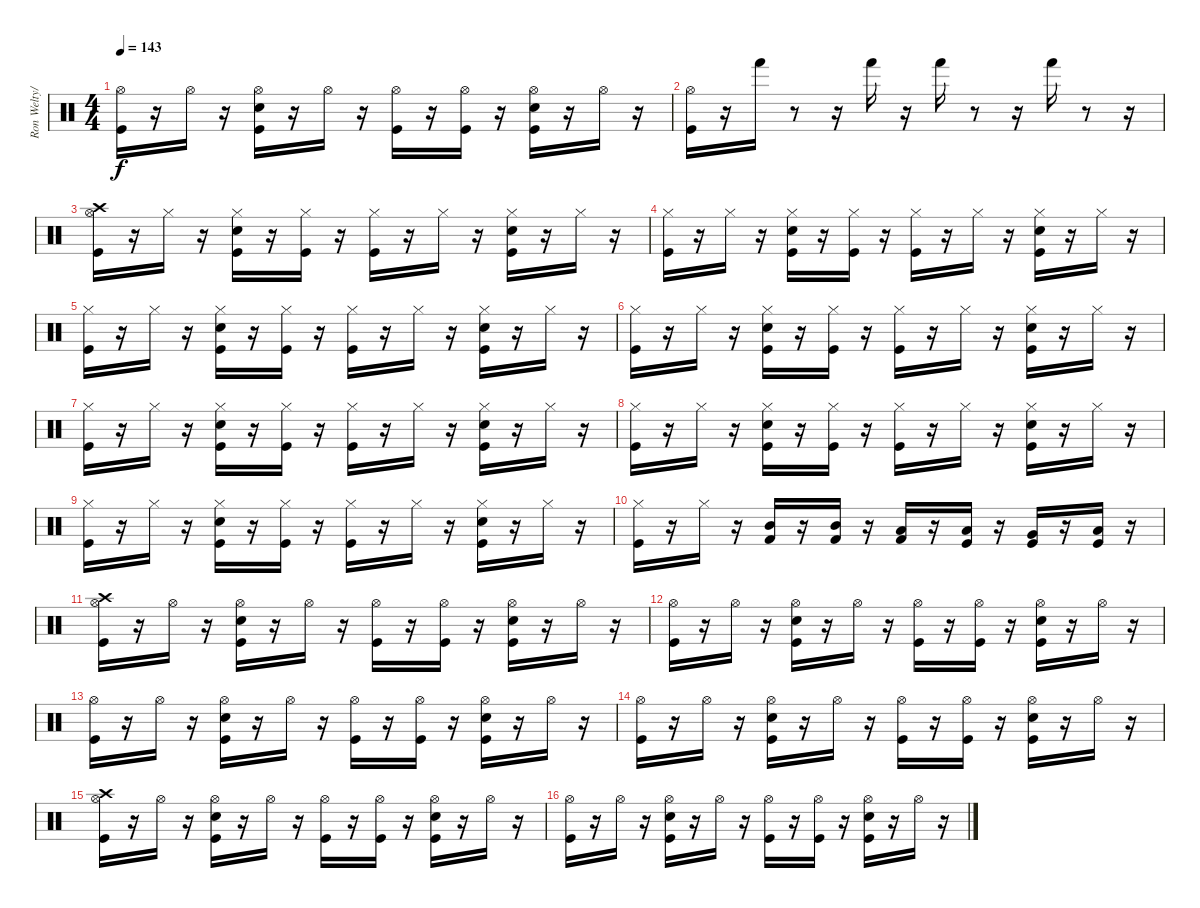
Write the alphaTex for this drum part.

\track ("Ron Welty/Atom Willard" "Ron Welty/") {instrument percussion}
\staff {score}
\articulation defaults
\ts (4 4)
\tempo 143
\clef neutral
\ks c
("Kick (hit)" "Hi-Hat (open)").16{dy f} r.16 "Hi-Hat (open)".16 r.16 ("Snare (hit) 2" "Kick (hit)" "Hi-Hat (open)").16 r.16 "Hi-Hat (open)".16 r.16 ("Kick (hit)" "Hi-Hat (open)").16 r.16 ("Kick (hit)" "Hi-Hat (open)").16 r.16 ("Kick (hit)" "Snare (hit) 2" "Hi-Hat (open)").16 r.16 "Hi-Hat (open)".16 r.16 |
("Kick (hit)" "Hi-Hat (open)").16 r.16 "Hand (hit)".16 r.8 r.16 "Hand (hit)".16 r.16 "Hand (hit)".16 r.8 r.16 "Hand (hit)".16 r.8 r.16 |
("Crash high (hit)" "Hi-Hat (open)" "Kick (hit)").16 r.16 "Hi-Hat (closed)".16 r.16 ("Snare (hit) 2" "Kick (hit)" "Hi-Hat (closed)").16 r.16 ("Kick (hit)" "Hi-Hat (closed)").16 r.16 ("Kick (hit)" "Hi-Hat (closed)").16 r.16 "Hi-Hat (closed)".16 r.16 ("Snare (hit) 2" "Kick (hit)" "Hi-Hat (closed)").16 r.16 "Hi-Hat (closed)".16 r.16 |
("Kick (hit)" "Hi-Hat (closed)").16 r.16 "Hi-Hat (closed)".16 r.16 ("Snare (hit) 2" "Kick (hit)" "Hi-Hat (closed)").16 r.16 ("Kick (hit)" "Hi-Hat (closed)").16 r.16 ("Kick (hit)" "Hi-Hat (closed)").16 r.16 "Hi-Hat (closed)".16 r.16 ("Snare (hit) 2" "Kick (hit)" "Hi-Hat (closed)").16 r.16 "Hi-Hat (closed)".16 r.16 |
("Hi-Hat (closed)" "Kick (hit)").16 r.16 "Hi-Hat (closed)".16 r.16 ("Snare (hit) 2" "Kick (hit)" "Hi-Hat (closed)").16 r.16 ("Kick (hit)" "Hi-Hat (closed)").16 r.16 ("Kick (hit)" "Hi-Hat (closed)").16 r.16 "Hi-Hat (closed)".16 r.16 ("Snare (hit) 2" "Kick (hit)" "Hi-Hat (closed)").16 r.16 "Hi-Hat (closed)".16 r.16 |
("Hi-Hat (closed)" "Kick (hit)").16 r.16 "Hi-Hat (closed)".16 r.16 ("Snare (hit) 2" "Kick (hit)" "Hi-Hat (closed)").16 r.16 ("Kick (hit)" "Hi-Hat (closed)").16 r.16 ("Kick (hit)" "Hi-Hat (closed)").16 r.16 "Hi-Hat (closed)".16 r.16 ("Snare (hit) 2" "Kick (hit)" "Hi-Hat (closed)").16 r.16 "Hi-Hat (closed)".16 r.16 |
("Hi-Hat (closed)" "Kick (hit)").16 r.16 "Hi-Hat (closed)".16 r.16 ("Snare (hit) 2" "Kick (hit)" "Hi-Hat (closed)").16 r.16 ("Kick (hit)" "Hi-Hat (closed)").16 r.16 ("Kick (hit)" "Hi-Hat (closed)").16 r.16 "Hi-Hat (closed)".16 r.16 ("Snare (hit) 2" "Kick (hit)" "Hi-Hat (closed)").16 r.16 "Hi-Hat (closed)".16 r.16 |
("Hi-Hat (closed)" "Kick (hit)").16 r.16 "Hi-Hat (closed)".16 r.16 ("Snare (hit) 2" "Kick (hit)" "Hi-Hat (closed)").16 r.16 ("Kick (hit)" "Hi-Hat (closed)").16 r.16 ("Kick (hit)" "Hi-Hat (closed)").16 r.16 "Hi-Hat (closed)".16 r.16 ("Snare (hit) 2" "Kick (hit)" "Hi-Hat (closed)").16 r.16 "Hi-Hat (closed)".16 r.16 |
("Hi-Hat (closed)" "Kick (hit)").16 r.16 "Hi-Hat (closed)".16 r.16 ("Snare (hit) 2" "Kick (hit)" "Hi-Hat (closed)").16 r.16 ("Kick (hit)" "Hi-Hat (closed)").16 r.16 ("Kick (hit)" "Hi-Hat (closed)").16 r.16 "Hi-Hat (closed)".16 r.16 ("Snare (hit) 2" "Kick (hit)" "Hi-Hat (closed)").16 r.16 "Hi-Hat (closed)".16 r.16 |
("Hi-Hat (closed)" "Kick (hit)").16 r.16 "Hi-Hat (closed)".16 r.16 ("Kick (hit) 2" "Mid Tom (hit)").16 r.16 ("Kick (hit) 2" "Mid Tom (hit)").16 r.16 ("Kick (hit) 2" "Low Tom (hit)").16 r.16 ("Kick (hit)" "Low Tom (hit)").16 r.16 ("Kick (hit)" "Very Low Tom (hit)").16 r.16 ("Kick (hit)" "Low Floor Tom (hit)").16 r.16 |
("Crash high (hit)" "Hi-Hat (open)" "Kick (hit)").16 r.16 "Hi-Hat (open)".16 r.16 ("Snare (hit) 2" "Kick (hit)" "Hi-Hat (open)").16 r.16 "Hi-Hat (open)".16 r.16 ("Kick (hit)" "Hi-Hat (open)").16 r.16 ("Kick (hit)" "Hi-Hat (open)").16 r.16 ("Kick (hit)" "Snare (hit) 2" "Hi-Hat (open)").16 r.16 "Hi-Hat (open)".16 r.16 |
("Kick (hit)" "Hi-Hat (open)").16 r.16 "Hi-Hat (open)".16 r.16 ("Snare (hit) 2" "Kick (hit)" "Hi-Hat (open)").16 r.16 "Hi-Hat (open)".16 r.16 ("Kick (hit)" "Hi-Hat (open)").16 r.16 ("Kick (hit)" "Hi-Hat (open)").16 r.16 ("Kick (hit)" "Snare (hit) 2" "Hi-Hat (open)").16 r.16 "Hi-Hat (open)".16 r.16 |
("Hi-Hat (open)" "Kick (hit)").16 r.16 "Hi-Hat (open)".16 r.16 ("Snare (hit) 2" "Kick (hit)" "Hi-Hat (open)").16 r.16 "Hi-Hat (open)".16 r.16 ("Kick (hit)" "Hi-Hat (open)").16 r.16 ("Kick (hit)" "Hi-Hat (open)").16 r.16 ("Kick (hit)" "Snare (hit) 2" "Hi-Hat (open)").16 r.16 "Hi-Hat (open)".16 r.16 |
("Hi-Hat (open)" "Kick (hit)").16 r.16 "Hi-Hat (open)".16 r.16 ("Snare (hit) 2" "Kick (hit)" "Hi-Hat (open)").16 r.16 "Hi-Hat (open)".16 r.16 ("Kick (hit)" "Hi-Hat (open)").16 r.16 ("Kick (hit)" "Hi-Hat (open)").16 r.16 ("Kick (hit)" "Snare (hit) 2" "Hi-Hat (open)").16 r.16 "Hi-Hat (open)".16 r.16 |
("Hi-Hat (open)" "Kick (hit)" "Crash high (hit)").16 r.16 "Hi-Hat (open)".16 r.16 ("Snare (hit) 2" "Kick (hit)" "Hi-Hat (open)").16 r.16 "Hi-Hat (open)".16 r.16 ("Kick (hit)" "Hi-Hat (open)").16 r.16 ("Kick (hit)" "Hi-Hat (open)").16 r.16 ("Kick (hit)" "Snare (hit) 2" "Hi-Hat (open)").16 r.16 "Hi-Hat (open)".16 r.16 |
("Hi-Hat (open)" "Kick (hit)").16 r.16 "Hi-Hat (open)".16 r.16 ("Snare (hit) 2" "Kick (hit)" "Hi-Hat (open)").16 r.16 "Hi-Hat (open)".16 r.16 ("Kick (hit)" "Hi-Hat (open)").16 r.16 ("Kick (hit)" "Hi-Hat (open)").16 r.16 ("Kick (hit)" "Snare (hit) 2" "Hi-Hat (open)").16 r.16 "Hi-Hat (open)".16 r.16
